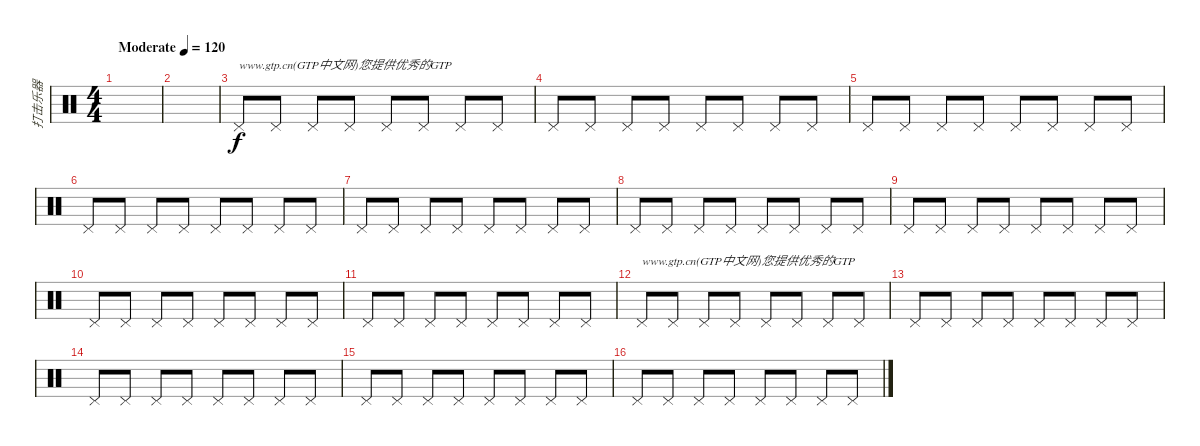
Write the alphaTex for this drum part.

\track ("打击乐器" "打击乐器") {instrument percussion}
\staff {score}
\articulation defaults
\ts (4 4)
\tempo (120 "Moderate")
\clef neutral
\ks c
|
|
"Pedal Hi-Hat (hit)".8{txt "www.gtp.cn(GTP中文网)您提供优秀的GTP"} "Pedal Hi-Hat (hit)".8 "Pedal Hi-Hat (hit)".8 "Pedal Hi-Hat (hit)".8 "Pedal Hi-Hat (hit)".8 "Pedal Hi-Hat (hit)".8 "Pedal Hi-Hat (hit)".8 "Pedal Hi-Hat (hit)".8 |
"Pedal Hi-Hat (hit)".8 "Pedal Hi-Hat (hit)".8 "Pedal Hi-Hat (hit)".8 "Pedal Hi-Hat (hit)".8 "Pedal Hi-Hat (hit)".8 "Pedal Hi-Hat (hit)".8 "Pedal Hi-Hat (hit)".8 "Pedal Hi-Hat (hit)".8 |
"Pedal Hi-Hat (hit)".8 "Pedal Hi-Hat (hit)".8 "Pedal Hi-Hat (hit)".8 "Pedal Hi-Hat (hit)".8 "Pedal Hi-Hat (hit)".8 "Pedal Hi-Hat (hit)".8 "Pedal Hi-Hat (hit)".8 "Pedal Hi-Hat (hit)".8 |
"Pedal Hi-Hat (hit)".8 "Pedal Hi-Hat (hit)".8 "Pedal Hi-Hat (hit)".8 "Pedal Hi-Hat (hit)".8 "Pedal Hi-Hat (hit)".8 "Pedal Hi-Hat (hit)".8 "Pedal Hi-Hat (hit)".8 "Pedal Hi-Hat (hit)".8 |
"Pedal Hi-Hat (hit)".8 "Pedal Hi-Hat (hit)".8 "Pedal Hi-Hat (hit)".8 "Pedal Hi-Hat (hit)".8 "Pedal Hi-Hat (hit)".8 "Pedal Hi-Hat (hit)".8 "Pedal Hi-Hat (hit)".8 "Pedal Hi-Hat (hit)".8 |
"Pedal Hi-Hat (hit)".8 "Pedal Hi-Hat (hit)".8 "Pedal Hi-Hat (hit)".8 "Pedal Hi-Hat (hit)".8 "Pedal Hi-Hat (hit)".8 "Pedal Hi-Hat (hit)".8 "Pedal Hi-Hat (hit)".8 "Pedal Hi-Hat (hit)".8 |
"Pedal Hi-Hat (hit)".8 "Pedal Hi-Hat (hit)".8 "Pedal Hi-Hat (hit)".8 "Pedal Hi-Hat (hit)".8 "Pedal Hi-Hat (hit)".8 "Pedal Hi-Hat (hit)".8 "Pedal Hi-Hat (hit)".8 "Pedal Hi-Hat (hit)".8 |
"Pedal Hi-Hat (hit)".8 "Pedal Hi-Hat (hit)".8 "Pedal Hi-Hat (hit)".8 "Pedal Hi-Hat (hit)".8 "Pedal Hi-Hat (hit)".8 "Pedal Hi-Hat (hit)".8 "Pedal Hi-Hat (hit)".8 "Pedal Hi-Hat (hit)".8 |
"Pedal Hi-Hat (hit)".8 "Pedal Hi-Hat (hit)".8 "Pedal Hi-Hat (hit)".8 "Pedal Hi-Hat (hit)".8 "Pedal Hi-Hat (hit)".8 "Pedal Hi-Hat (hit)".8 "Pedal Hi-Hat (hit)".8 "Pedal Hi-Hat (hit)".8 |
"Pedal Hi-Hat (hit)".8{txt "www.gtp.cn(GTP中文网)您提供优秀的GTP"} "Pedal Hi-Hat (hit)".8 "Pedal Hi-Hat (hit)".8 "Pedal Hi-Hat (hit)".8 "Pedal Hi-Hat (hit)".8 "Pedal Hi-Hat (hit)".8 "Pedal Hi-Hat (hit)".8 "Pedal Hi-Hat (hit)".8 |
"Pedal Hi-Hat (hit)".8 "Pedal Hi-Hat (hit)".8 "Pedal Hi-Hat (hit)".8 "Pedal Hi-Hat (hit)".8 "Pedal Hi-Hat (hit)".8 "Pedal Hi-Hat (hit)".8 "Pedal Hi-Hat (hit)".8 "Pedal Hi-Hat (hit)".8 |
"Pedal Hi-Hat (hit)".8 "Pedal Hi-Hat (hit)".8 "Pedal Hi-Hat (hit)".8 "Pedal Hi-Hat (hit)".8 "Pedal Hi-Hat (hit)".8 "Pedal Hi-Hat (hit)".8 "Pedal Hi-Hat (hit)".8 "Pedal Hi-Hat (hit)".8 |
"Pedal Hi-Hat (hit)".8 "Pedal Hi-Hat (hit)".8 "Pedal Hi-Hat (hit)".8 "Pedal Hi-Hat (hit)".8 "Pedal Hi-Hat (hit)".8 "Pedal Hi-Hat (hit)".8 "Pedal Hi-Hat (hit)".8 "Pedal Hi-Hat (hit)".8 |
"Pedal Hi-Hat (hit)".8 "Pedal Hi-Hat (hit)".8 "Pedal Hi-Hat (hit)".8 "Pedal Hi-Hat (hit)".8 "Pedal Hi-Hat (hit)".8 "Pedal Hi-Hat (hit)".8 "Pedal Hi-Hat (hit)".8 "Pedal Hi-Hat (hit)".8
